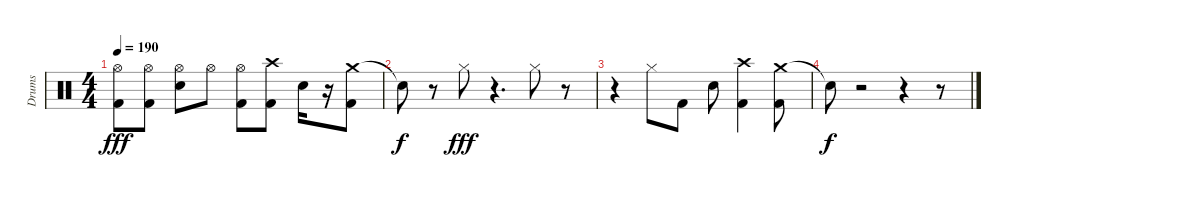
\track ("Drums" "Drums") {instrument percussion}
\staff {score}
\articulation defaults
\ts (4 4)
\tempo 190
\clef neutral
\ks c
("Kick (hit) 2" "Hi-Hat (open)").8{dy fff} ("Hi-Hat (open)" "Kick (hit) 2").8 ("Electric Snare (hit)" "Hi-Hat (open)").8 "Hi-Hat (open)".8 ("Kick (hit) 2" "Hi-Hat (open)").8 ("Crash high (hit)" "Kick (hit) 2").8 "Electric Snare (hit)".16 r.16 ("Crash medium (hit)" "Kick (hit) 2").8 |
"Snare (hit)"{t}.8{dy f} r.8 "Hi-Hat (closed)".8{dy fff} r.4{d} "Hi-Hat (closed)".8 r.8 |
r.4 "Hi-Hat (closed)".8 "Kick (hit) 2".8 "Electric Snare (hit)".8 ("Crash high (hit)" "Kick (hit) 2").4 ("Crash medium (hit)" "Kick (hit) 2").8 |
"Snare (hit)"{t}.8{dy f} r.2 r.4 r.8
